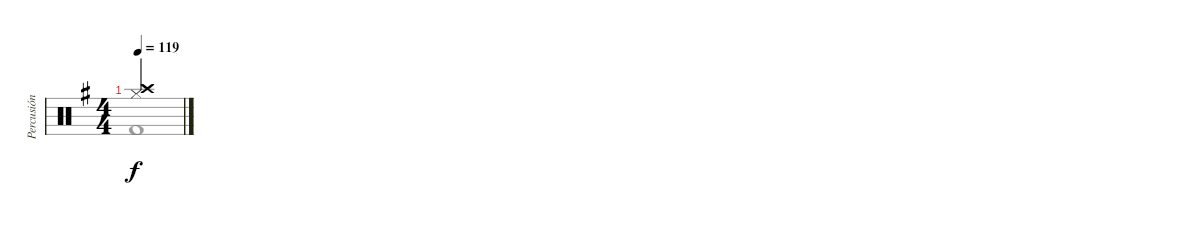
\track ("Percusión" "Percusión") {instrument percussion}
\staff {score}
\articulation defaults
\voice
\ts (4 4)
\tempo 119
\clef neutral
\ks g
("Hi-Hat (closed)" "Crash high (hit)").4{dy f} |
|
|
\voice
\clef neutral
\ottava regular
\simile none
\ks g "Kick (hit) 2".1{dy f}
|
|
|
